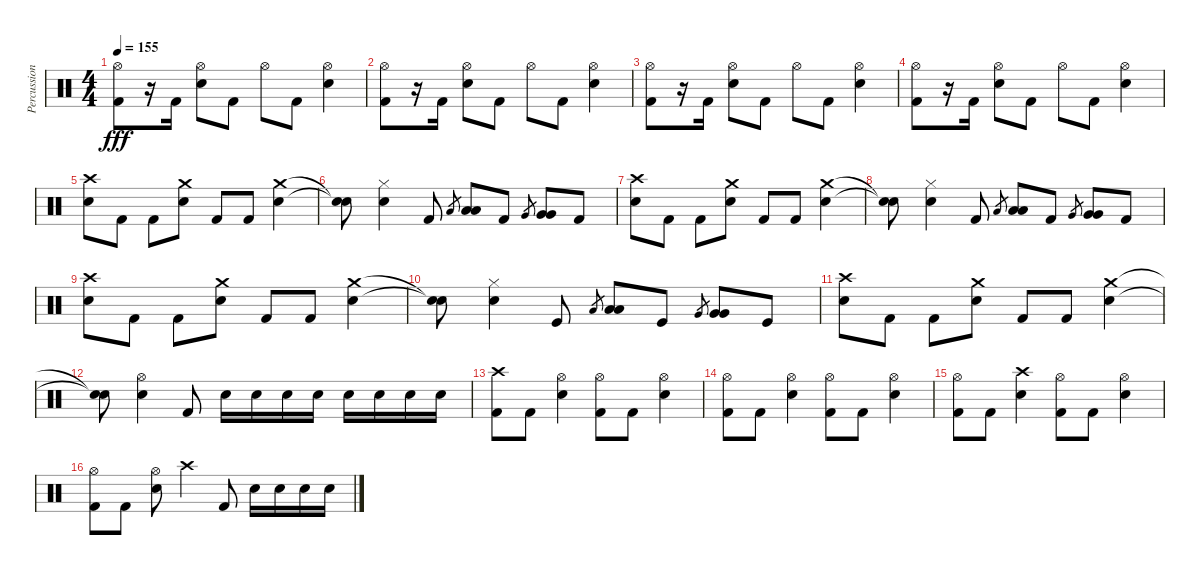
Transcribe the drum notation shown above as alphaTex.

\track ("Percussion" "Percussion") {instrument percussion}
\staff {score}
\articulation defaults
\ts (4 4)
\tempo 155
\clef neutral
\ks c
("Hi-Hat (open)" "Kick (hit) 2").8{dy fff} r.16 "Kick (hit) 2".16 ("Hi-Hat (open)" "Electric Snare (hit)").8 "Kick (hit) 2".8 "Hi-Hat (open)".8 "Kick (hit) 2".8 ("Hi-Hat (open)" "Electric Snare (hit)").4 |
("Hi-Hat (open)" "Kick (hit) 2").8 r.16 "Kick (hit) 2".16 ("Hi-Hat (open)" "Electric Snare (hit)").8 "Kick (hit) 2".8 "Hi-Hat (open)".8 "Kick (hit) 2".8 ("Hi-Hat (open)" "Electric Snare (hit)").4 |
("Hi-Hat (open)" "Kick (hit) 2").8 r.16 "Kick (hit) 2".16 ("Hi-Hat (open)" "Electric Snare (hit)").8 "Kick (hit) 2".8 "Hi-Hat (open)".8 "Kick (hit) 2".8 ("Hi-Hat (open)" "Electric Snare (hit)").4 |
("Hi-Hat (open)" "Kick (hit) 2").8 r.16 "Kick (hit) 2".16 ("Hi-Hat (open)" "Electric Snare (hit)").8 "Kick (hit) 2".8 "Hi-Hat (open)".8 "Kick (hit) 2".8 ("Hi-Hat (open)" "Electric Snare (hit)").4 |
("Crash high (hit)" "Electric Snare (hit)").8 "Kick (hit) 2".8 "Kick (hit) 2".8 ("Crash medium (hit)" "Electric Snare (hit)").8 "Kick (hit) 2".8 "Kick (hit) 2".8 ("Crash medium (hit)" "Electric Snare (hit)").4 |
("Snare (hit)"{t} "Snare (hit)"{t}).8 ("Hi-Hat (closed)" "Electric Snare (hit)").4 "Kick (hit) 2".8 "Low Tom (hit)".8{gr} ("Low Tom (hit)" "Low Tom (hit)").8 "Kick (hit) 2".8 "Very Low Tom (hit)".8{gr} ("Very Low Tom (hit)" "Very Low Tom (hit)").8 "Kick (hit) 2".8 |
("Crash high (hit)" "Electric Snare (hit)").8 "Kick (hit) 2".8 "Kick (hit) 2".8 ("Crash medium (hit)" "Electric Snare (hit)").8 "Kick (hit) 2".8 "Kick (hit) 2".8 ("Crash medium (hit)" "Electric Snare (hit)").4 |
("Snare (hit)"{t} "Snare (hit)"{t}).8 ("Hi-Hat (closed)" "Electric Snare (hit)").4 "Kick (hit) 2".8 "Low Tom (hit)".8{gr} ("Low Tom (hit)" "Low Tom (hit)").8 "Kick (hit) 2".8 "Very Low Tom (hit)".8{gr} ("Very Low Tom (hit)" "Very Low Tom (hit)").8 "Kick (hit) 2".8 |
("Crash high (hit)" "Electric Snare (hit)").8 "Kick (hit) 2".8 "Kick (hit) 2".8 ("Crash medium (hit)" "Electric Snare (hit)").8 "Kick (hit) 2".8 "Kick (hit) 2".8 ("Crash medium (hit)" "Electric Snare (hit)").4 |
("Snare (hit)"{t} "Snare (hit)"{t}).8 ("Hi-Hat (closed)" "Electric Snare (hit)").4 "Kick (hit)".8 "Low Tom (hit)".8{gr} ("Low Tom (hit)" "Low Tom (hit)").8 "Kick (hit)".8 "Very Low Tom (hit)".8{gr} ("Very Low Tom (hit)" "Very Low Tom (hit)").8 "Kick (hit)".8 |
("Crash high (hit)" "Electric Snare (hit)").8 "Kick (hit) 2".8 "Kick (hit) 2".8 ("Crash medium (hit)" "Electric Snare (hit)").8 "Kick (hit) 2".8 "Kick (hit) 2".8 ("Crash medium (hit)" "Electric Snare (hit)").4 |
("Snare (hit)"{t} "Snare (hit)"{t}).8 ("Hi-Hat (open)" "Electric Snare (hit)").4 "Kick (hit) 2".8 "Electric Snare (hit)".16 "Electric Snare (hit)".16 "Electric Snare (hit)".16 "Electric Snare (hit)".16 "Electric Snare (hit)".16 "Electric Snare (hit)".16 "Electric Snare (hit)".16 "Electric Snare (hit)".16 |
("Crash high (hit)" "Kick (hit) 2").8 "Kick (hit) 2".8 ("Hi-Hat (open)" "Electric Snare (hit)").4 ("Hi-Hat (open)" "Kick (hit) 2").8 "Kick (hit) 2".8 ("Hi-Hat (open)" "Electric Snare (hit)").4 |
("Hi-Hat (open)" "Kick (hit) 2").8 "Kick (hit) 2".8 ("Hi-Hat (open)" "Electric Snare (hit)").4 ("Hi-Hat (open)" "Kick (hit) 2").8 "Kick (hit) 2".8 ("Hi-Hat (open)" "Electric Snare (hit)").4 |
("Hi-Hat (open)" "Kick (hit) 2").8 "Kick (hit) 2".8 ("Crash high (hit)" "Electric Snare (hit)").4 ("Hi-Hat (open)" "Kick (hit) 2").8 "Kick (hit) 2".8 ("Hi-Hat (open)" "Electric Snare (hit)").4 |
("Hi-Hat (open)" "Kick (hit) 2").8 "Kick (hit) 2".8 ("Hi-Hat (open)" "Electric Snare (hit)").8 "Crash high (hit)".4 "Kick (hit) 2".8 "Electric Snare (hit)".16 "Electric Snare (hit)".16 "Electric Snare (hit)".16 "Electric Snare (hit)".16
